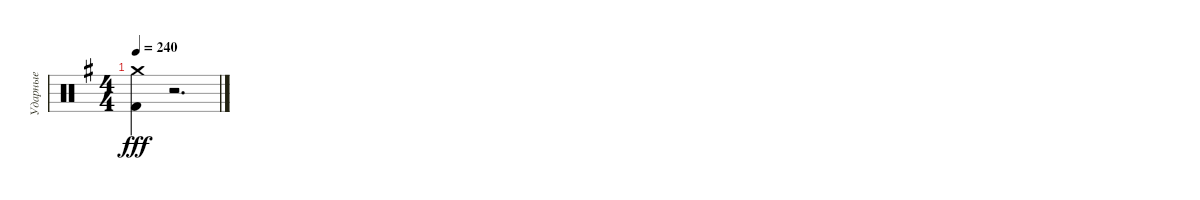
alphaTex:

\track ("Ударные" "Ударные") {instrument percussion}
\staff {score}
\articulation defaults
\ts (4 4)
\tempo 240
\clef neutral
\ks eminor
("Crash medium (hit)" "Kick (hit) 2").4{dy fff} r.2{d}
